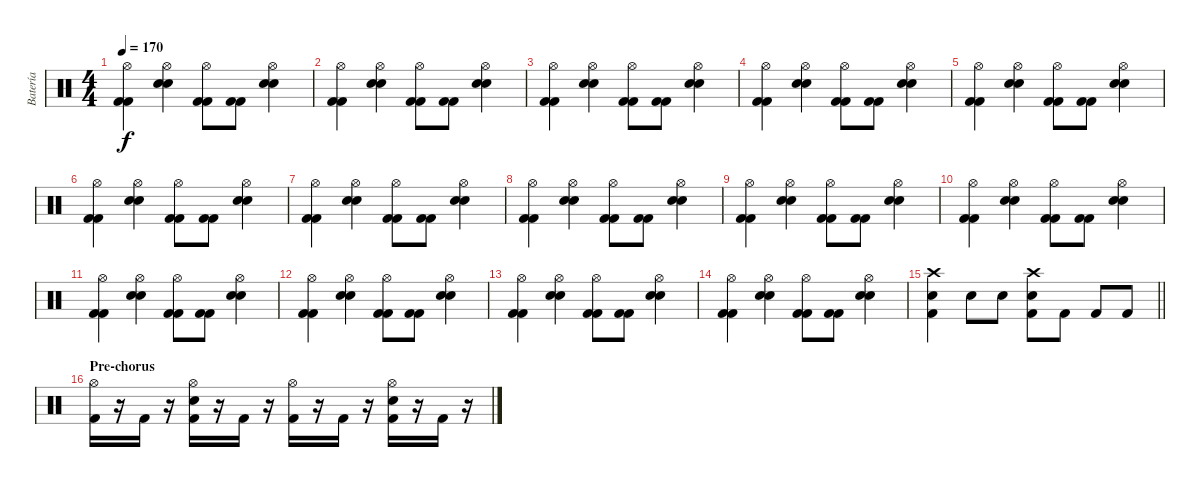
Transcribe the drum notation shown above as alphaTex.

\track ("Batería" "Batería") {instrument percussion}
\staff {score}
\articulation defaults
\ts (4 4)
\tempo 170
\clef neutral
\ks c
("Hi-Hat (open)" "Kick (hit) 2" "Kick (hit) 2").4{dy f} ("Hi-Hat (open)" "Snare (hit) 2" "Snare (hit) 2").4 ("Hi-Hat (open)" "Kick (hit) 2" "Kick (hit) 2").8 ("Kick (hit) 2" "Kick (hit) 2").8 ("Hi-Hat (open)" "Snare (hit) 2" "Snare (hit) 2").4 |
("Hi-Hat (open)" "Kick (hit) 2" "Kick (hit) 2").4 ("Hi-Hat (open)" "Snare (hit) 2" "Snare (hit) 2").4 ("Hi-Hat (open)" "Kick (hit) 2" "Kick (hit) 2").8 ("Kick (hit) 2" "Kick (hit) 2").8 ("Hi-Hat (open)" "Snare (hit) 2" "Snare (hit) 2").4 |
("Hi-Hat (open)" "Kick (hit) 2" "Kick (hit) 2").4 ("Hi-Hat (open)" "Snare (hit) 2" "Snare (hit) 2").4 ("Hi-Hat (open)" "Kick (hit) 2" "Kick (hit) 2").8 ("Kick (hit) 2" "Kick (hit) 2").8 ("Hi-Hat (open)" "Snare (hit) 2" "Snare (hit) 2").4 |
("Hi-Hat (open)" "Kick (hit) 2" "Kick (hit) 2").4 ("Hi-Hat (open)" "Snare (hit) 2" "Snare (hit) 2").4 ("Hi-Hat (open)" "Kick (hit) 2" "Kick (hit) 2").8 ("Kick (hit) 2" "Kick (hit) 2").8 ("Hi-Hat (open)" "Snare (hit) 2" "Snare (hit) 2").4 |
("Hi-Hat (open)" "Kick (hit) 2" "Kick (hit) 2").4 ("Hi-Hat (open)" "Snare (hit) 2" "Snare (hit) 2").4 ("Hi-Hat (open)" "Kick (hit) 2" "Kick (hit) 2").8 ("Kick (hit) 2" "Kick (hit) 2").8 ("Hi-Hat (open)" "Snare (hit) 2" "Snare (hit) 2").4 |
("Hi-Hat (open)" "Kick (hit) 2" "Kick (hit) 2").4 ("Hi-Hat (open)" "Snare (hit) 2" "Snare (hit) 2").4 ("Hi-Hat (open)" "Kick (hit) 2" "Kick (hit) 2").8 ("Kick (hit) 2" "Kick (hit) 2").8 ("Hi-Hat (open)" "Snare (hit) 2" "Snare (hit) 2").4 |
("Hi-Hat (open)" "Kick (hit) 2" "Kick (hit) 2").4 ("Hi-Hat (open)" "Snare (hit) 2" "Snare (hit) 2").4 ("Hi-Hat (open)" "Kick (hit) 2" "Kick (hit) 2").8 ("Kick (hit) 2" "Kick (hit) 2").8 ("Hi-Hat (open)" "Snare (hit) 2" "Snare (hit) 2").4 |
("Hi-Hat (open)" "Kick (hit) 2" "Kick (hit) 2").4 ("Hi-Hat (open)" "Snare (hit) 2" "Snare (hit) 2").4 ("Hi-Hat (open)" "Kick (hit) 2" "Kick (hit) 2").8 ("Kick (hit) 2" "Kick (hit) 2").8 ("Hi-Hat (open)" "Snare (hit) 2" "Snare (hit) 2").4 |
("Hi-Hat (open)" "Kick (hit) 2" "Kick (hit) 2").4 ("Hi-Hat (open)" "Snare (hit) 2" "Snare (hit) 2").4 ("Hi-Hat (open)" "Kick (hit) 2" "Kick (hit) 2").8 ("Kick (hit) 2" "Kick (hit) 2").8 ("Hi-Hat (open)" "Snare (hit) 2" "Snare (hit) 2").4 |
("Hi-Hat (open)" "Kick (hit) 2" "Kick (hit) 2").4 ("Hi-Hat (open)" "Snare (hit) 2" "Snare (hit) 2").4 ("Hi-Hat (open)" "Kick (hit) 2" "Kick (hit) 2").8 ("Kick (hit) 2" "Kick (hit) 2").8 ("Hi-Hat (open)" "Snare (hit) 2" "Snare (hit) 2").4 |
("Hi-Hat (open)" "Kick (hit) 2" "Kick (hit) 2").4 ("Hi-Hat (open)" "Snare (hit) 2" "Snare (hit) 2").4 ("Hi-Hat (open)" "Kick (hit) 2" "Kick (hit) 2").8 ("Kick (hit) 2" "Kick (hit) 2").8 ("Hi-Hat (open)" "Snare (hit) 2" "Snare (hit) 2").4 |
("Hi-Hat (open)" "Kick (hit) 2" "Kick (hit) 2").4 ("Hi-Hat (open)" "Snare (hit) 2" "Snare (hit) 2").4 ("Hi-Hat (open)" "Kick (hit) 2" "Kick (hit) 2").8 ("Kick (hit) 2" "Kick (hit) 2").8 ("Hi-Hat (open)" "Snare (hit) 2" "Snare (hit) 2").4 |
("Hi-Hat (open)" "Kick (hit) 2" "Kick (hit) 2").4 ("Hi-Hat (open)" "Snare (hit) 2" "Snare (hit) 2").4 ("Hi-Hat (open)" "Kick (hit) 2" "Kick (hit) 2").8 ("Kick (hit) 2" "Kick (hit) 2").8 ("Hi-Hat (open)" "Snare (hit) 2" "Snare (hit) 2").4 |
("Hi-Hat (open)" "Kick (hit) 2" "Kick (hit) 2").4 ("Hi-Hat (open)" "Snare (hit) 2" "Snare (hit) 2").4 ("Hi-Hat (open)" "Kick (hit) 2" "Kick (hit) 2").8 ("Kick (hit) 2" "Kick (hit) 2").8 ("Hi-Hat (open)" "Snare (hit) 2" "Snare (hit) 2").4 |
\barLineRight lightlight
("Crash high (hit)" "Snare (hit) 2" "Kick (hit) 2").4 "Snare (hit) 2".8 "Snare (hit) 2".8 ("Crash high (hit)" "Snare (hit) 2" "Kick (hit) 2").8 "Kick (hit) 2".8 "Kick (hit) 2".8 "Kick (hit) 2".8 |
\section ("" "Pre-chorus")
("Hi-Hat (open)" "Kick (hit) 2").16 r.16 "Kick (hit) 2".16 r.16 ("Hi-Hat (open)" "Snare (hit) 2" "Kick (hit) 2").16 r.16 "Kick (hit) 2".16 r.16 ("Hi-Hat (open)" "Kick (hit) 2").16 r.16 "Kick (hit) 2".16 r.16 ("Hi-Hat (open)" "Snare (hit) 2" "Kick (hit) 2").16 r.16 "Kick (hit) 2".16 r.16
